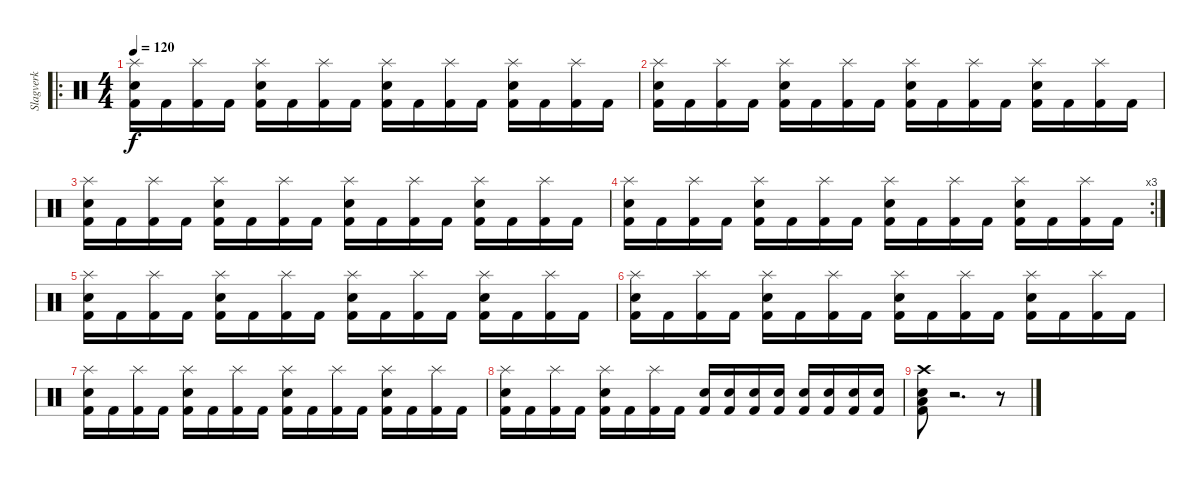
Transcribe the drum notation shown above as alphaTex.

\track ("Slagverk" "Slagverk") {instrument percussion}
\staff {score}
\articulation defaults
\ro
\ts (4 4)
\tempo 120
\clef neutral
\ks c
("Kick (hit) 2" "Electric Snare (hit)" "Splash (hit)").16{dy f} "Kick (hit) 2".16 ("Kick (hit) 2" "Splash (hit)").16 "Kick (hit) 2".16 ("Kick (hit) 2" "Electric Snare (hit)" "Splash (hit)").16 "Kick (hit) 2".16 ("Kick (hit) 2" "Splash (hit)").16 "Kick (hit) 2".16 ("Kick (hit) 2" "Electric Snare (hit)" "Splash (hit)").16 "Kick (hit) 2".16 ("Kick (hit) 2" "Splash (hit)").16 "Kick (hit) 2".16 ("Kick (hit) 2" "Electric Snare (hit)" "Splash (hit)").16 "Kick (hit) 2".16 ("Kick (hit) 2" "Splash (hit)").16 "Kick (hit) 2".16 |
("Kick (hit) 2" "Electric Snare (hit)" "Splash (hit)").16 "Kick (hit) 2".16 ("Kick (hit) 2" "Splash (hit)").16 "Kick (hit) 2".16 ("Kick (hit) 2" "Electric Snare (hit)" "Splash (hit)").16 "Kick (hit) 2".16 ("Kick (hit) 2" "Splash (hit)").16 "Kick (hit) 2".16 ("Kick (hit) 2" "Electric Snare (hit)" "Splash (hit)").16 "Kick (hit) 2".16 ("Kick (hit) 2" "Splash (hit)").16 "Kick (hit) 2".16 ("Kick (hit) 2" "Electric Snare (hit)" "Splash (hit)").16 "Kick (hit) 2".16 ("Kick (hit) 2" "Splash (hit)").16 "Kick (hit) 2".16 |
("Kick (hit) 2" "Electric Snare (hit)" "Splash (hit)").16 "Kick (hit) 2".16 ("Kick (hit) 2" "Splash (hit)").16 "Kick (hit) 2".16 ("Kick (hit) 2" "Electric Snare (hit)" "Splash (hit)").16 "Kick (hit) 2".16 ("Kick (hit) 2" "Splash (hit)").16 "Kick (hit) 2".16 ("Kick (hit) 2" "Electric Snare (hit)" "Splash (hit)").16 "Kick (hit) 2".16 ("Kick (hit) 2" "Splash (hit)").16 "Kick (hit) 2".16 ("Kick (hit) 2" "Electric Snare (hit)" "Splash (hit)").16 "Kick (hit) 2".16 ("Kick (hit) 2" "Splash (hit)").16 "Kick (hit) 2".16 |
\rc 3
("Kick (hit) 2" "Electric Snare (hit)" "Splash (hit)").16 "Kick (hit) 2".16 ("Kick (hit) 2" "Splash (hit)").16 "Kick (hit) 2".16 ("Kick (hit) 2" "Electric Snare (hit)" "Splash (hit)").16 "Kick (hit) 2".16 ("Kick (hit) 2" "Splash (hit)").16 "Kick (hit) 2".16 ("Kick (hit) 2" "Electric Snare (hit)" "Splash (hit)").16 "Kick (hit) 2".16 ("Kick (hit) 2" "Splash (hit)").16 "Kick (hit) 2".16 ("Kick (hit) 2" "Electric Snare (hit)" "Splash (hit)").16 "Kick (hit) 2".16 ("Kick (hit) 2" "Splash (hit)").16 "Kick (hit) 2".16 |
("Kick (hit) 2" "Electric Snare (hit)" "Splash (hit)").16 "Kick (hit) 2".16 ("Kick (hit) 2" "Splash (hit)").16 "Kick (hit) 2".16 ("Kick (hit) 2" "Electric Snare (hit)" "Splash (hit)").16 "Kick (hit) 2".16 ("Kick (hit) 2" "Splash (hit)").16 "Kick (hit) 2".16 ("Kick (hit) 2" "Electric Snare (hit)" "Splash (hit)").16 "Kick (hit) 2".16 ("Kick (hit) 2" "Splash (hit)").16 "Kick (hit) 2".16 ("Kick (hit) 2" "Electric Snare (hit)" "Splash (hit)").16 "Kick (hit) 2".16 ("Kick (hit) 2" "Splash (hit)").16 "Kick (hit) 2".16 |
("Kick (hit) 2" "Electric Snare (hit)" "Splash (hit)").16 "Kick (hit) 2".16 ("Kick (hit) 2" "Splash (hit)").16 "Kick (hit) 2".16 ("Kick (hit) 2" "Electric Snare (hit)" "Splash (hit)").16 "Kick (hit) 2".16 ("Kick (hit) 2" "Splash (hit)").16 "Kick (hit) 2".16 ("Kick (hit) 2" "Electric Snare (hit)" "Splash (hit)").16 "Kick (hit) 2".16 ("Kick (hit) 2" "Splash (hit)").16 "Kick (hit) 2".16 ("Kick (hit) 2" "Electric Snare (hit)" "Splash (hit)").16 "Kick (hit) 2".16 ("Kick (hit) 2" "Splash (hit)").16 "Kick (hit) 2".16 |
("Kick (hit) 2" "Electric Snare (hit)" "Splash (hit)").16 "Kick (hit) 2".16 ("Kick (hit) 2" "Splash (hit)").16 "Kick (hit) 2".16 ("Kick (hit) 2" "Electric Snare (hit)" "Splash (hit)").16 "Kick (hit) 2".16 ("Kick (hit) 2" "Splash (hit)").16 "Kick (hit) 2".16 ("Kick (hit) 2" "Electric Snare (hit)" "Splash (hit)").16 "Kick (hit) 2".16 ("Kick (hit) 2" "Splash (hit)").16 "Kick (hit) 2".16 ("Kick (hit) 2" "Electric Snare (hit)" "Splash (hit)").16 "Kick (hit) 2".16 ("Kick (hit) 2" "Splash (hit)").16 "Kick (hit) 2".16 |
("Kick (hit) 2" "Electric Snare (hit)" "Splash (hit)").16 "Kick (hit) 2".16 ("Kick (hit) 2" "Splash (hit)").16 "Kick (hit) 2".16 ("Kick (hit) 2" "Electric Snare (hit)" "Splash (hit)").16 "Kick (hit) 2".16 ("Kick (hit) 2" "Splash (hit)").16 "Kick (hit) 2".16 ("Kick (hit) 2" "Electric Snare (hit)").16 ("Kick (hit) 2" "Electric Snare (hit)").16 ("Kick (hit) 2" "Electric Snare (hit)").16 ("Kick (hit) 2" "Electric Snare (hit)").16 ("Kick (hit) 2" "Electric Snare (hit)").16 ("Kick (hit) 2" "Electric Snare (hit)").16 ("Kick (hit) 2" "Electric Snare (hit)").16 ("Kick (hit) 2" "Electric Snare (hit)").16 |
("Kick (hit) 2" "Low Floor Tom (hit)" "Electric Snare (hit)" "Crash high (hit)").8 r.2{d} r.8
